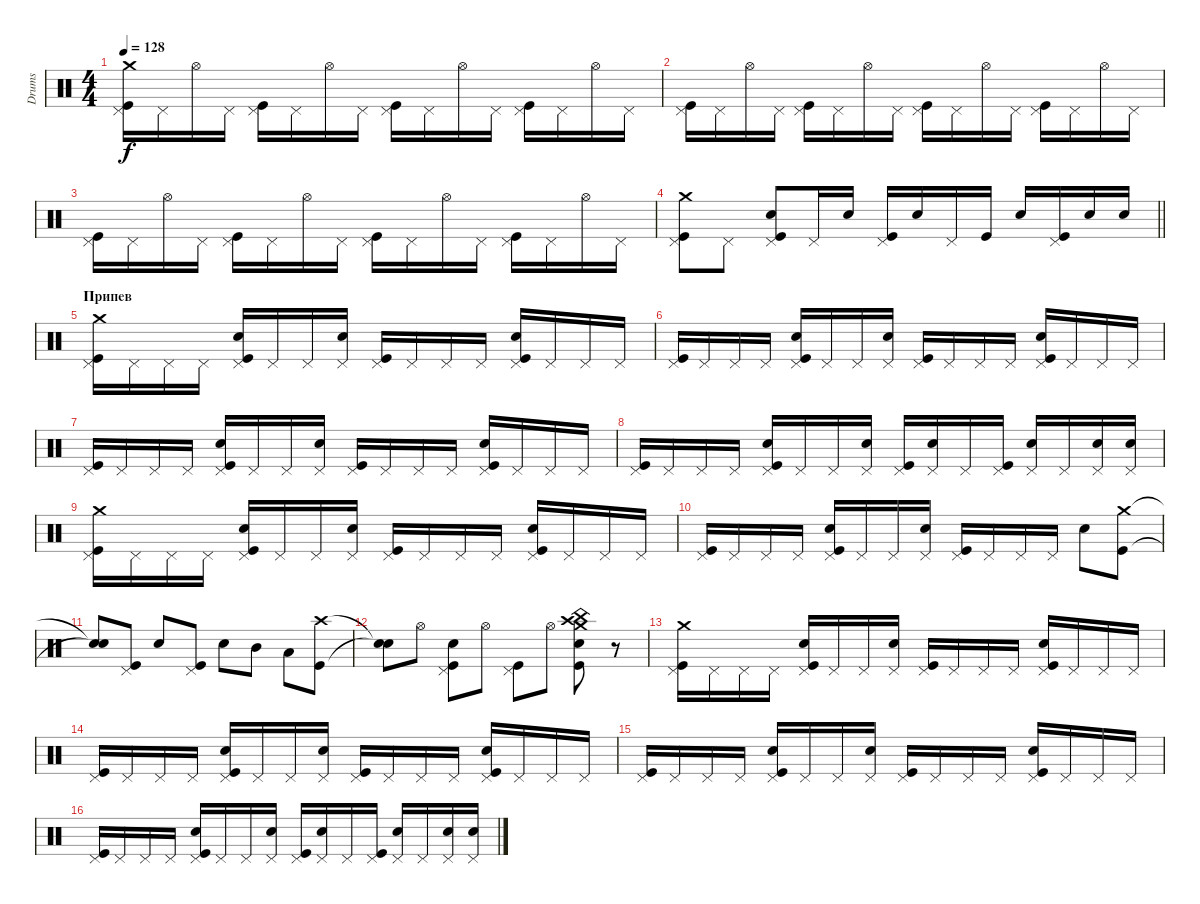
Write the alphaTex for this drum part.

\track ("Drums" "Drums") {instrument percussion}
\staff {score}
\articulation defaults
\ts (4 4)
\tempo 128
\clef neutral
\ks c
("Kick (hit)" "Pedal Hi-Hat (hit)" "Crash medium (hit)").16{dy f} "Pedal Hi-Hat (hit)".16 "Hi-Hat (open)".16 "Pedal Hi-Hat (hit)".16 ("Kick (hit)" "Pedal Hi-Hat (hit)").16 "Pedal Hi-Hat (hit)".16 "Hi-Hat (open)".16 "Pedal Hi-Hat (hit)".16 ("Kick (hit)" "Pedal Hi-Hat (hit)").16 "Pedal Hi-Hat (hit)".16 "Hi-Hat (open)".16 "Pedal Hi-Hat (hit)".16 ("Kick (hit)" "Pedal Hi-Hat (hit)").16 "Pedal Hi-Hat (hit)".16 "Hi-Hat (open)".16 "Pedal Hi-Hat (hit)".16 |
("Kick (hit)" "Pedal Hi-Hat (hit)").16 "Pedal Hi-Hat (hit)".16 "Hi-Hat (open)".16 "Pedal Hi-Hat (hit)".16 ("Kick (hit)" "Pedal Hi-Hat (hit)").16 "Pedal Hi-Hat (hit)".16 "Hi-Hat (open)".16 "Pedal Hi-Hat (hit)".16 ("Kick (hit)" "Pedal Hi-Hat (hit)").16 "Pedal Hi-Hat (hit)".16 "Hi-Hat (open)".16 "Pedal Hi-Hat (hit)".16 ("Kick (hit)" "Pedal Hi-Hat (hit)").16 "Pedal Hi-Hat (hit)".16 "Hi-Hat (open)".16 "Pedal Hi-Hat (hit)".16 |
("Kick (hit)" "Pedal Hi-Hat (hit)").16 "Pedal Hi-Hat (hit)".16 "Hi-Hat (open)".16 "Pedal Hi-Hat (hit)".16 ("Kick (hit)" "Pedal Hi-Hat (hit)").16 "Pedal Hi-Hat (hit)".16 "Hi-Hat (open)".16 "Pedal Hi-Hat (hit)".16 ("Kick (hit)" "Pedal Hi-Hat (hit)").16 "Pedal Hi-Hat (hit)".16 "Hi-Hat (open)".16 "Pedal Hi-Hat (hit)".16 ("Kick (hit)" "Pedal Hi-Hat (hit)").16 "Pedal Hi-Hat (hit)".16 "Hi-Hat (open)".16 "Pedal Hi-Hat (hit)".16 |
\barLineRight lightlight
("Kick (hit)" "Crash medium (hit)" "Pedal Hi-Hat (hit)").8 "Pedal Hi-Hat (hit)".8 ("Kick (hit)" "Pedal Hi-Hat (hit)" "Snare (hit) 2").8 "Pedal Hi-Hat (hit)".16 "Snare (hit) 2".16 ("Kick (hit)" "Pedal Hi-Hat (hit)").16 "Snare (hit) 2".16 "Pedal Hi-Hat (hit)".16 "Kick (hit)".16 "Snare (hit) 2".16 ("Kick (hit)" "Pedal Hi-Hat (hit)").16 "Snare (hit) 2".16 "Snare (hit) 2".16 |
\section ("" "Припев")
("Kick (hit)" "Pedal Hi-Hat (hit)" "Crash medium (hit)").16 "Pedal Hi-Hat (hit)".16 "Pedal Hi-Hat (hit)".16 "Pedal Hi-Hat (hit)".16 ("Kick (hit)" "Pedal Hi-Hat (hit)" "Snare (hit) 2").16 "Pedal Hi-Hat (hit)".16 "Pedal Hi-Hat (hit)".16 ("Pedal Hi-Hat (hit)" "Snare (hit) 2").16 ("Kick (hit)" "Pedal Hi-Hat (hit)").16 "Pedal Hi-Hat (hit)".16 "Pedal Hi-Hat (hit)".16 "Pedal Hi-Hat (hit)".16 ("Kick (hit)" "Pedal Hi-Hat (hit)" "Snare (hit) 2").16 "Pedal Hi-Hat (hit)".16 "Pedal Hi-Hat (hit)".16 "Pedal Hi-Hat (hit)".16 |
("Kick (hit)" "Pedal Hi-Hat (hit)").16 "Pedal Hi-Hat (hit)".16 "Pedal Hi-Hat (hit)".16 "Pedal Hi-Hat (hit)".16 ("Kick (hit)" "Pedal Hi-Hat (hit)" "Snare (hit) 2").16 "Pedal Hi-Hat (hit)".16 "Pedal Hi-Hat (hit)".16 ("Pedal Hi-Hat (hit)" "Snare (hit) 2").16 ("Kick (hit)" "Pedal Hi-Hat (hit)").16 "Pedal Hi-Hat (hit)".16 "Pedal Hi-Hat (hit)".16 "Pedal Hi-Hat (hit)".16 ("Kick (hit)" "Pedal Hi-Hat (hit)" "Snare (hit) 2").16 "Pedal Hi-Hat (hit)".16 "Pedal Hi-Hat (hit)".16 "Pedal Hi-Hat (hit)".16 |
("Kick (hit)" "Pedal Hi-Hat (hit)").16 "Pedal Hi-Hat (hit)".16 "Pedal Hi-Hat (hit)".16 "Pedal Hi-Hat (hit)".16 ("Kick (hit)" "Pedal Hi-Hat (hit)" "Snare (hit) 2").16 "Pedal Hi-Hat (hit)".16 "Pedal Hi-Hat (hit)".16 ("Pedal Hi-Hat (hit)" "Snare (hit) 2").16 ("Kick (hit)" "Pedal Hi-Hat (hit)").16 "Pedal Hi-Hat (hit)".16 "Pedal Hi-Hat (hit)".16 "Pedal Hi-Hat (hit)".16 ("Kick (hit)" "Pedal Hi-Hat (hit)" "Snare (hit) 2").16 "Pedal Hi-Hat (hit)".16 "Pedal Hi-Hat (hit)".16 "Pedal Hi-Hat (hit)".16 |
("Kick (hit)" "Pedal Hi-Hat (hit)").16 "Pedal Hi-Hat (hit)".16 "Pedal Hi-Hat (hit)".16 "Pedal Hi-Hat (hit)".16 ("Kick (hit)" "Pedal Hi-Hat (hit)" "Snare (hit) 2").16 "Pedal Hi-Hat (hit)".16 "Pedal Hi-Hat (hit)".16 ("Pedal Hi-Hat (hit)" "Snare (hit) 2").16 ("Kick (hit)" "Pedal Hi-Hat (hit)").16 ("Pedal Hi-Hat (hit)" "Snare (hit) 2").16 "Pedal Hi-Hat (hit)".16 ("Kick (hit)" "Pedal Hi-Hat (hit)").16 ("Pedal Hi-Hat (hit)" "Snare (hit) 2").16 "Pedal Hi-Hat (hit)".16 ("Pedal Hi-Hat (hit)" "Snare (hit) 2").16 ("Pedal Hi-Hat (hit)" "Snare (hit) 2").16 |
("Kick (hit)" "Pedal Hi-Hat (hit)" "Crash medium (hit)").16 "Pedal Hi-Hat (hit)".16 "Pedal Hi-Hat (hit)".16 "Pedal Hi-Hat (hit)".16 ("Kick (hit)" "Pedal Hi-Hat (hit)" "Snare (hit) 2").16 "Pedal Hi-Hat (hit)".16 "Pedal Hi-Hat (hit)".16 ("Pedal Hi-Hat (hit)" "Snare (hit) 2").16 ("Kick (hit)" "Pedal Hi-Hat (hit)").16 "Pedal Hi-Hat (hit)".16 "Pedal Hi-Hat (hit)".16 "Pedal Hi-Hat (hit)".16 ("Kick (hit)" "Pedal Hi-Hat (hit)" "Snare (hit) 2").16 "Pedal Hi-Hat (hit)".16 "Pedal Hi-Hat (hit)".16 "Pedal Hi-Hat (hit)".16 |
("Kick (hit)" "Pedal Hi-Hat (hit)").16 "Pedal Hi-Hat (hit)".16 "Pedal Hi-Hat (hit)".16 "Pedal Hi-Hat (hit)".16 ("Kick (hit)" "Pedal Hi-Hat (hit)" "Snare (hit) 2").16 "Pedal Hi-Hat (hit)".16 "Pedal Hi-Hat (hit)".16 ("Pedal Hi-Hat (hit)" "Snare (hit) 2").16 ("Kick (hit)" "Pedal Hi-Hat (hit)").16 "Pedal Hi-Hat (hit)".16 "Pedal Hi-Hat (hit)".16 "Pedal Hi-Hat (hit)".16 "Snare (hit) 2".8 ("Kick (hit)" "Crash medium (hit)").8 |
("Snare (hit)"{t} "Snare (hit)"{t}).8 ("Kick (hit)" "Pedal Hi-Hat (hit)").8 "Snare (hit) 2".8 ("Kick (hit)" "Pedal Hi-Hat (hit)").8 "Snare (hit) 2".8 "Mid Tom (hit)".8 "Low Tom (hit)".8 ("Kick (hit)" "Crash high (hit)").8 |
("Snare (hit)"{t} "Snare (hit)"{t}).8 "Hi-Hat (open)".8 ("Kick (hit)" "Pedal Hi-Hat (hit)" "Snare (hit) 2").8 "Hi-Hat (open)".8 ("Kick (hit)" "Pedal Hi-Hat (hit)").8 "Hi-Hat (open)".8 ("Kick (hit)" "Crash high (hit)" "Snare (hit) 2" "Crash medium (hit)" "China (hit)").8 r.8 |
("Kick (hit)" "Pedal Hi-Hat (hit)" "Crash medium (hit)").16 "Pedal Hi-Hat (hit)".16 "Pedal Hi-Hat (hit)".16 "Pedal Hi-Hat (hit)".16 ("Kick (hit)" "Pedal Hi-Hat (hit)" "Snare (hit) 2").16 "Pedal Hi-Hat (hit)".16 "Pedal Hi-Hat (hit)".16 ("Pedal Hi-Hat (hit)" "Snare (hit) 2").16 ("Kick (hit)" "Pedal Hi-Hat (hit)").16 "Pedal Hi-Hat (hit)".16 "Pedal Hi-Hat (hit)".16 "Pedal Hi-Hat (hit)".16 ("Kick (hit)" "Pedal Hi-Hat (hit)" "Snare (hit) 2").16 "Pedal Hi-Hat (hit)".16 "Pedal Hi-Hat (hit)".16 "Pedal Hi-Hat (hit)".16 |
("Kick (hit)" "Pedal Hi-Hat (hit)").16 "Pedal Hi-Hat (hit)".16 "Pedal Hi-Hat (hit)".16 "Pedal Hi-Hat (hit)".16 ("Kick (hit)" "Pedal Hi-Hat (hit)" "Snare (hit) 2").16 "Pedal Hi-Hat (hit)".16 "Pedal Hi-Hat (hit)".16 ("Pedal Hi-Hat (hit)" "Snare (hit) 2").16 ("Kick (hit)" "Pedal Hi-Hat (hit)").16 "Pedal Hi-Hat (hit)".16 "Pedal Hi-Hat (hit)".16 "Pedal Hi-Hat (hit)".16 ("Kick (hit)" "Pedal Hi-Hat (hit)" "Snare (hit) 2").16 "Pedal Hi-Hat (hit)".16 "Pedal Hi-Hat (hit)".16 "Pedal Hi-Hat (hit)".16 |
("Kick (hit)" "Pedal Hi-Hat (hit)").16 "Pedal Hi-Hat (hit)".16 "Pedal Hi-Hat (hit)".16 "Pedal Hi-Hat (hit)".16 ("Kick (hit)" "Pedal Hi-Hat (hit)" "Snare (hit) 2").16 "Pedal Hi-Hat (hit)".16 "Pedal Hi-Hat (hit)".16 ("Pedal Hi-Hat (hit)" "Snare (hit) 2").16 ("Kick (hit)" "Pedal Hi-Hat (hit)").16 "Pedal Hi-Hat (hit)".16 "Pedal Hi-Hat (hit)".16 "Pedal Hi-Hat (hit)".16 ("Kick (hit)" "Pedal Hi-Hat (hit)" "Snare (hit) 2").16 "Pedal Hi-Hat (hit)".16 "Pedal Hi-Hat (hit)".16 "Pedal Hi-Hat (hit)".16 |
("Kick (hit)" "Pedal Hi-Hat (hit)").16 "Pedal Hi-Hat (hit)".16 "Pedal Hi-Hat (hit)".16 "Pedal Hi-Hat (hit)".16 ("Kick (hit)" "Pedal Hi-Hat (hit)" "Snare (hit) 2").16 "Pedal Hi-Hat (hit)".16 "Pedal Hi-Hat (hit)".16 ("Pedal Hi-Hat (hit)" "Snare (hit) 2").16 ("Kick (hit)" "Pedal Hi-Hat (hit)").16 ("Pedal Hi-Hat (hit)" "Snare (hit) 2").16 "Pedal Hi-Hat (hit)".16 ("Kick (hit)" "Pedal Hi-Hat (hit)").16 ("Pedal Hi-Hat (hit)" "Snare (hit) 2").16 "Pedal Hi-Hat (hit)".16 ("Pedal Hi-Hat (hit)" "Snare (hit) 2").16 ("Pedal Hi-Hat (hit)" "Snare (hit) 2").16
